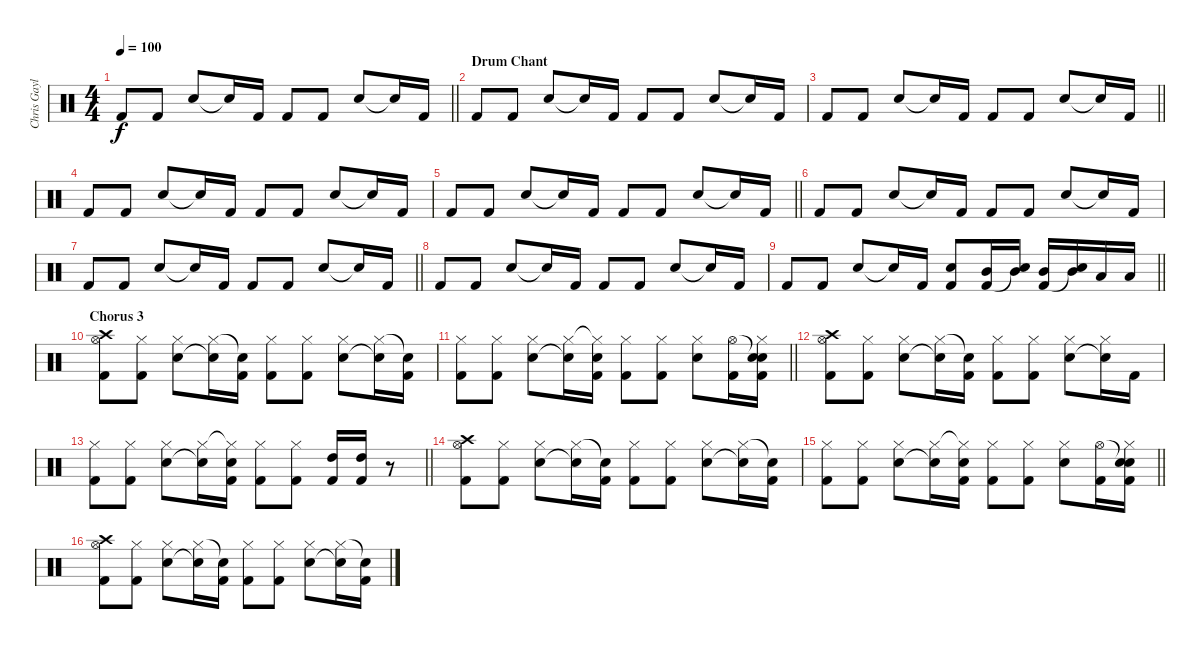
\track ("Chris Gaylor (Drums)" "Chris Gayl") {instrument percussion}
\staff {score}
\articulation defaults
\ts (4 4)
\tempo 100
\clef neutral
\barLineRight lightlight
\ks c "Kick (hit) 2".8{dy f} "Kick (hit) 2".8 "Snare (hit) 2".8 "Snare (hit)"{t}.16 "Kick (hit) 2".16 "Kick (hit) 2".8 "Kick (hit) 2".8 "Snare (hit) 2".8 "Snare (hit)"{t}.16 "Kick (hit) 2".16
|
\section ("" "Drum Chant")
"Kick (hit) 2".8 "Kick (hit) 2".8 "Snare (hit) 2".8 "Snare (hit)"{t}.16 "Kick (hit) 2".16 "Kick (hit) 2".8 "Kick (hit) 2".8 "Snare (hit) 2".8 "Snare (hit)"{t}.16 "Kick (hit) 2".16 |
\barLineRight lightlight "Kick (hit) 2".8 "Kick (hit) 2".8 "Snare (hit) 2".8 "Snare (hit)"{t}.16 "Kick (hit) 2".16 "Kick (hit) 2".8 "Kick (hit) 2".8 "Snare (hit) 2".8 "Snare (hit)"{t}.16 "Kick (hit) 2".16
|
"Kick (hit) 2".8 "Kick (hit) 2".8 "Snare (hit) 2".8 "Snare (hit)"{t}.16 "Kick (hit) 2".16 "Kick (hit) 2".8 "Kick (hit) 2".8 "Snare (hit) 2".8 "Snare (hit)"{t}.16 "Kick (hit) 2".16 |
\barLineRight lightlight "Kick (hit) 2".8 "Kick (hit) 2".8 "Snare (hit) 2".8 "Snare (hit)"{t}.16 "Kick (hit) 2".16 "Kick (hit) 2".8 "Kick (hit) 2".8 "Snare (hit) 2".8 "Snare (hit)"{t}.16 "Kick (hit) 2".16
|
"Kick (hit) 2".8 "Kick (hit) 2".8 "Snare (hit) 2".8 "Snare (hit)"{t}.16 "Kick (hit) 2".16 "Kick (hit) 2".8 "Kick (hit) 2".8 "Snare (hit) 2".8 "Snare (hit)"{t}.16 "Kick (hit) 2".16 |
\barLineRight lightlight "Kick (hit) 2".8 "Kick (hit) 2".8 "Snare (hit) 2".8 "Snare (hit)"{t}.16 "Kick (hit) 2".16 "Kick (hit) 2".8 "Kick (hit) 2".8 "Snare (hit) 2".8 "Snare (hit)"{t}.16 "Kick (hit) 2".16
|
"Kick (hit) 2".8 "Kick (hit) 2".8 "Snare (hit) 2".8 "Snare (hit)"{t}.16 "Kick (hit) 2".16 "Kick (hit) 2".8 "Kick (hit) 2".8 "Snare (hit) 2".8 "Snare (hit)"{t}.16 "Kick (hit) 2".16 |
\barLineRight lightlight "Kick (hit) 2".8 "Kick (hit) 2".8 "Snare (hit) 2".8 "Snare (hit)"{t}.16 "Kick (hit) 2".16
("Snare (hit) 2" "Kick (hit) 2").8 ("Mid Tom (hit)" "Kick (hit) 2").16 ("Mid Tom (hit)" "Snare (hit)"{t}).16 ("Mid Tom (hit)" "Kick (hit) 2").16 ("Mid Tom (hit)" "Snare (hit)"{t}).16 "Low Floor Tom (hit)".16 "Low Floor Tom (hit)".16 |
\section ("" "Chorus 3")
("Hi-Hat (open)" "Crash high (hit)" "Kick (hit) 2").8 ("Hi-Hat (closed)" "Kick (hit) 2").8 ("Hi-Hat (closed)" "Snare (hit) 2").8 ("Hi-Hat (closed)" "Snare (hit)"{t}).16 ("Snare (hit)"{t} "Kick (hit) 2").16 ("Hi-Hat (closed)" "Kick (hit) 2").8 ("Hi-Hat (closed)" "Kick (hit) 2").8 ("Hi-Hat (closed)" "Snare (hit) 2").8 ("Hi-Hat (closed)" "Snare (hit)"{t}).16 ("Snare (hit)"{t} "Kick (hit) 2").16 |
\barLineRight lightlight
("Hi-Hat (closed)" "Kick (hit) 2").8 ("Hi-Hat (closed)" "Kick (hit) 2").8 ("Hi-Hat (closed)" "Snare (hit) 2").8 ("Hi-Hat (closed)" "Snare (hit)"{t}).16 ("Hi-Hat (closed)"{t} "Snare (hit) 2" "Kick (hit) 2").16 ("Hi-Hat (closed)" "Kick (hit) 2").8 ("Hi-Hat (closed)" "Kick (hit) 2").8 ("Hi-Hat (closed)" "Snare (hit) 2").8 ("Hi-Hat (open)" "Kick (hit) 2").16 ("Snare (hit)"{t} "Hi-Hat (closed)" "Snare (hit) 2" "Kick (hit) 2").16 |
("Hi-Hat (open)" "Crash high (hit)" "Kick (hit) 2").8 ("Hi-Hat (closed)" "Kick (hit) 2").8 ("Hi-Hat (closed)" "Snare (hit) 2").8 ("Hi-Hat (closed)" "Snare (hit)"{t}).16 ("Snare (hit)"{t} "Kick (hit) 2").16 ("Hi-Hat (closed)" "Kick (hit) 2").8 ("Hi-Hat (closed)" "Kick (hit) 2").8 ("Hi-Hat (closed)" "Snare (hit) 2").8 ("Hi-Hat (closed)" "Snare (hit) 2"{t}).16 "Kick (hit) 2".16 |
\barLineRight lightlight
("Hi-Hat (closed)" "Kick (hit) 2").8 ("Hi-Hat (closed)" "Kick (hit) 2").8 ("Hi-Hat (closed)" "Snare (hit) 2").8 ("Hi-Hat (closed)" "Snare (hit)"{t}).16 ("Hi-Hat (closed)"{t} "Snare (hit) 2" "Kick (hit) 2").16 ("Hi-Hat (closed)" "Kick (hit) 2").8 ("Hi-Hat (closed)" "Kick (hit) 2").8 ("High Tom (hit)" "Kick (hit) 2").16 ("High Tom (hit)" "Kick (hit) 2").16 r.8 |
("Hi-Hat (open)" "Crash high (hit)" "Kick (hit) 2").8 ("Hi-Hat (closed)" "Kick (hit) 2").8 ("Hi-Hat (closed)" "Snare (hit) 2").8 ("Hi-Hat (closed)" "Snare (hit)"{t}).16 ("Snare (hit)"{t} "Kick (hit) 2").16 ("Hi-Hat (closed)" "Kick (hit) 2").8 ("Hi-Hat (closed)" "Kick (hit) 2").8 ("Hi-Hat (closed)" "Snare (hit) 2").8 ("Hi-Hat (closed)" "Snare (hit)"{t}).16 ("Snare (hit)"{t} "Kick (hit) 2").16 |
\barLineRight lightlight
("Hi-Hat (closed)" "Kick (hit) 2").8 ("Hi-Hat (closed)" "Kick (hit) 2").8 ("Hi-Hat (closed)" "Snare (hit) 2").8 ("Hi-Hat (closed)" "Snare (hit)"{t}).16 ("Hi-Hat (closed)"{t} "Snare (hit) 2" "Kick (hit) 2").16 ("Hi-Hat (closed)" "Kick (hit) 2").8 ("Hi-Hat (closed)" "Kick (hit) 2").8 ("Hi-Hat (closed)" "Snare (hit) 2").8 ("Hi-Hat (open)" "Kick (hit) 2").16 ("Snare (hit)"{t} "Hi-Hat (closed)" "Snare (hit) 2" "Kick (hit) 2").16 |
("Hi-Hat (open)" "Crash high (hit)" "Kick (hit) 2").8 ("Hi-Hat (closed)" "Kick (hit) 2").8 ("Hi-Hat (closed)" "Snare (hit) 2").8 ("Hi-Hat (closed)" "Snare (hit)"{t}).16 ("Snare (hit)"{t} "Kick (hit) 2").16 ("Hi-Hat (closed)" "Kick (hit) 2").8 ("Hi-Hat (closed)" "Kick (hit) 2").8 ("Hi-Hat (closed)" "Snare (hit) 2").8 ("Hi-Hat (closed)" "Snare (hit)"{t}).16 ("Snare (hit)"{t} "Kick (hit) 2").16
